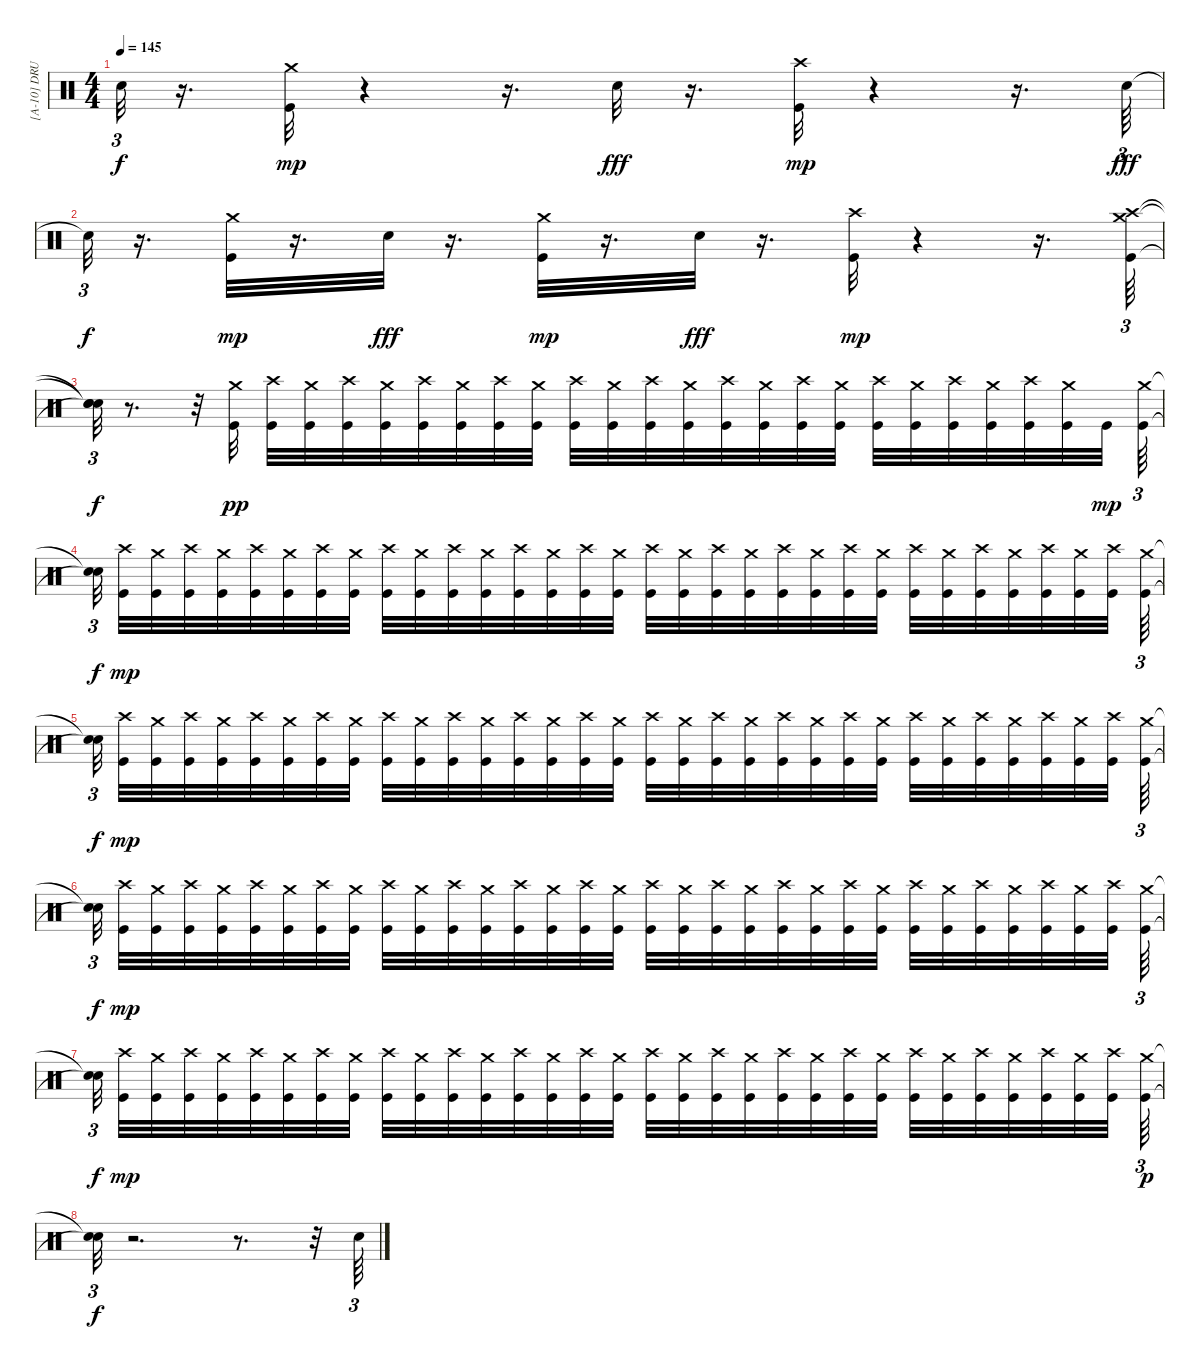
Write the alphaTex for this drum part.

\track ("[A-10] DRUMS" "[A-10] DRU") {instrument percussion}
\staff {score}
\articulation defaults
\ts (4 4)
\tempo 145
\clef neutral
\ks c "Snare (hit)"{t}.32{tu (3 2) dy f}
r.16{d} ("Kick (hit)" "Crash medium (hit)").32{dy mp} r.4 r.16{d} "Snare (hit) 2".32{dy fff} r.16{d} ("Kick (hit)" "Crash high (hit)").32{dy mp} r.4 r.16{d} "Snare (hit) 2".64{tu (3 2) dy fff} |
"Snare (hit)"{t}.32{tu (3 2) dy f} r.16{d} ("Kick (hit)" "Crash medium (hit)").32{dy mp} r.16{d} "Snare (hit) 2".32{dy fff} r.16{d} ("Kick (hit)" "Crash medium (hit)").32{dy mp} r.16{d} "Snare (hit) 2".32{dy fff} r.16{d} ("Kick (hit)" "Crash high (hit)").32{dy mp} r.4 r.16{d} ("Kick (hit)" "Crash high (hit)" "Crash medium (hit)").64{tu (3 2)} |
("Snare (hit)"{t} "Snare (hit)"{t} "Snare (hit)"{t}).32{tu (3 2) dy f} r.8{d} r.32 ("Kick (hit)" "Crash medium (hit)").32{dy pp} ("Kick (hit)" "Crash high (hit)").32 ("Kick (hit)" "Crash medium (hit)").32 ("Kick (hit)" "Crash high (hit)").32 ("Kick (hit)" "Crash medium (hit)").32 ("Kick (hit)" "Crash high (hit)").32 ("Kick (hit)" "Crash medium (hit)").32 ("Kick (hit)" "Crash high (hit)").32 ("Kick (hit)" "Crash medium (hit)").32 ("Kick (hit)" "Crash high (hit)").32 ("Kick (hit)" "Crash medium (hit)").32 ("Kick (hit)" "Crash high (hit)").32 ("Kick (hit)" "Crash medium (hit)").32 ("Kick (hit)" "Crash high (hit)").32 ("Kick (hit)" "Crash medium (hit)").32 ("Kick (hit)" "Crash high (hit)").32 ("Kick (hit)" "Crash medium (hit)").32 ("Kick (hit)" "Crash high (hit)").32 ("Kick (hit)" "Crash medium (hit)").32 ("Kick (hit)" "Crash high (hit)").32 ("Kick (hit)" "Crash medium (hit)").32 ("Kick (hit)" "Crash high (hit)").32 ("Kick (hit)" "Crash medium (hit)").32 "Kick (hit)".32{dy mp beam splitsecondary} ("Crash medium (hit)" "Kick (hit)").64{tu (3 2)} |
("Snare (hit)"{t} "Snare (hit)"{t}).32{tu (3 2) dy f beam splitsecondary} ("Crash high (hit)" "Kick (hit)").32{dy mp} ("Crash medium (hit)" "Kick (hit)").32 ("Crash high (hit)" "Kick (hit)").32 ("Crash medium (hit)" "Kick (hit)").32 ("Crash high (hit)" "Kick (hit)").32 ("Crash medium (hit)" "Kick (hit)").32 ("Crash high (hit)" "Kick (hit)").32 ("Crash medium (hit)" "Kick (hit)").32 ("Crash high (hit)" "Kick (hit)").32 ("Crash medium (hit)" "Kick (hit)").32 ("Crash high (hit)" "Kick (hit)").32 ("Crash medium (hit)" "Kick (hit)").32 ("Crash high (hit)" "Kick (hit)").32 ("Crash medium (hit)" "Kick (hit)").32 ("Crash high (hit)" "Kick (hit)").32 ("Crash medium (hit)" "Kick (hit)").32 ("Crash high (hit)" "Kick (hit)").32 ("Crash medium (hit)" "Kick (hit)").32 ("Crash high (hit)" "Kick (hit)").32 ("Crash medium (hit)" "Kick (hit)").32 ("Crash high (hit)" "Kick (hit)").32 ("Crash medium (hit)" "Kick (hit)").32 ("Crash high (hit)" "Kick (hit)").32 ("Crash medium (hit)" "Kick (hit)").32 ("Crash high (hit)" "Kick (hit)").32 ("Crash medium (hit)" "Kick (hit)").32 ("Crash high (hit)" "Kick (hit)").32 ("Crash medium (hit)" "Kick (hit)").32 ("Crash high (hit)" "Kick (hit)").32 ("Crash medium (hit)" "Kick (hit)").32 ("Crash high (hit)" "Kick (hit)").32{beam splitsecondary} ("Crash medium (hit)" "Kick (hit)").64{tu (3 2)} |
("Snare (hit)"{t} "Snare (hit)"{t}).32{tu (3 2) dy f beam splitsecondary} ("Crash high (hit)" "Kick (hit)").32{dy mp} ("Crash medium (hit)" "Kick (hit)").32 ("Crash high (hit)" "Kick (hit)").32 ("Crash medium (hit)" "Kick (hit)").32 ("Crash high (hit)" "Kick (hit)").32 ("Crash medium (hit)" "Kick (hit)").32 ("Crash high (hit)" "Kick (hit)").32 ("Crash medium (hit)" "Kick (hit)").32 ("Crash high (hit)" "Kick (hit)").32 ("Crash medium (hit)" "Kick (hit)").32 ("Crash high (hit)" "Kick (hit)").32 ("Crash medium (hit)" "Kick (hit)").32 ("Crash high (hit)" "Kick (hit)").32 ("Crash medium (hit)" "Kick (hit)").32 ("Crash high (hit)" "Kick (hit)").32 ("Crash medium (hit)" "Kick (hit)").32 ("Crash high (hit)" "Kick (hit)").32 ("Crash medium (hit)" "Kick (hit)").32 ("Crash high (hit)" "Kick (hit)").32 ("Crash medium (hit)" "Kick (hit)").32 ("Crash high (hit)" "Kick (hit)").32 ("Crash medium (hit)" "Kick (hit)").32 ("Crash high (hit)" "Kick (hit)").32 ("Crash medium (hit)" "Kick (hit)").32 ("Crash high (hit)" "Kick (hit)").32 ("Crash medium (hit)" "Kick (hit)").32 ("Crash high (hit)" "Kick (hit)").32 ("Crash medium (hit)" "Kick (hit)").32 ("Crash high (hit)" "Kick (hit)").32 ("Crash medium (hit)" "Kick (hit)").32 ("Crash high (hit)" "Kick (hit)").32{beam splitsecondary} ("Crash medium (hit)" "Kick (hit)").64{tu (3 2)} |
("Snare (hit)"{t} "Snare (hit)"{t}).32{tu (3 2) dy f beam splitsecondary} ("Crash high (hit)" "Kick (hit)").32{dy mp} ("Crash medium (hit)" "Kick (hit)").32 ("Crash high (hit)" "Kick (hit)").32 ("Crash medium (hit)" "Kick (hit)").32 ("Crash high (hit)" "Kick (hit)").32 ("Crash medium (hit)" "Kick (hit)").32 ("Crash high (hit)" "Kick (hit)").32 ("Crash medium (hit)" "Kick (hit)").32 ("Crash high (hit)" "Kick (hit)").32 ("Crash medium (hit)" "Kick (hit)").32 ("Crash high (hit)" "Kick (hit)").32 ("Crash medium (hit)" "Kick (hit)").32 ("Crash high (hit)" "Kick (hit)").32 ("Crash medium (hit)" "Kick (hit)").32 ("Crash high (hit)" "Kick (hit)").32 ("Crash medium (hit)" "Kick (hit)").32 ("Crash high (hit)" "Kick (hit)").32 ("Crash medium (hit)" "Kick (hit)").32 ("Crash high (hit)" "Kick (hit)").32 ("Crash medium (hit)" "Kick (hit)").32 ("Crash high (hit)" "Kick (hit)").32 ("Crash medium (hit)" "Kick (hit)").32 ("Crash high (hit)" "Kick (hit)").32 ("Crash medium (hit)" "Kick (hit)").32 ("Crash high (hit)" "Kick (hit)").32 ("Crash medium (hit)" "Kick (hit)").32 ("Crash high (hit)" "Kick (hit)").32 ("Crash medium (hit)" "Kick (hit)").32 ("Crash high (hit)" "Kick (hit)").32 ("Crash medium (hit)" "Kick (hit)").32 ("Crash high (hit)" "Kick (hit)").32{beam splitsecondary} ("Crash medium (hit)" "Kick (hit)").64{tu (3 2)} |
("Snare (hit)"{t} "Snare (hit)"{t}).32{tu (3 2) dy f beam splitsecondary} ("Crash high (hit)" "Kick (hit)").32{dy mp} ("Crash medium (hit)" "Kick (hit)").32 ("Crash high (hit)" "Kick (hit)").32 ("Crash medium (hit)" "Kick (hit)").32 ("Crash high (hit)" "Kick (hit)").32 ("Crash medium (hit)" "Kick (hit)").32 ("Crash high (hit)" "Kick (hit)").32 ("Crash medium (hit)" "Kick (hit)").32 ("Crash high (hit)" "Kick (hit)").32 ("Crash medium (hit)" "Kick (hit)").32 ("Crash high (hit)" "Kick (hit)").32 ("Crash medium (hit)" "Kick (hit)").32 ("Crash high (hit)" "Kick (hit)").32 ("Crash medium (hit)" "Kick (hit)").32 ("Crash high (hit)" "Kick (hit)").32 ("Crash medium (hit)" "Kick (hit)").32 ("Crash high (hit)" "Kick (hit)").32 ("Crash medium (hit)" "Kick (hit)").32 ("Crash high (hit)" "Kick (hit)").32 ("Crash medium (hit)" "Kick (hit)").32 ("Crash high (hit)" "Kick (hit)").32 ("Crash medium (hit)" "Kick (hit)").32 ("Crash high (hit)" "Kick (hit)").32 ("Crash medium (hit)" "Kick (hit)").32 ("Crash high (hit)" "Kick (hit)").32 ("Crash medium (hit)" "Kick (hit)").32 ("Crash high (hit)" "Kick (hit)").32 ("Crash medium (hit)" "Kick (hit)").32 ("Crash high (hit)" "Kick (hit)").32 ("Crash medium (hit)" "Kick (hit)").32 ("Crash high (hit)" "Kick (hit)").32{beam splitsecondary} ("Kick (hit)" "Crash medium (hit)").64{tu (3 2) dy p} |
("Snare (hit)"{t} "Snare (hit)"{t}).32{tu (3 2) dy f} r.2{d} r.8{d} r.32 "Snare (hit) 2".64{tu (3 2)}
